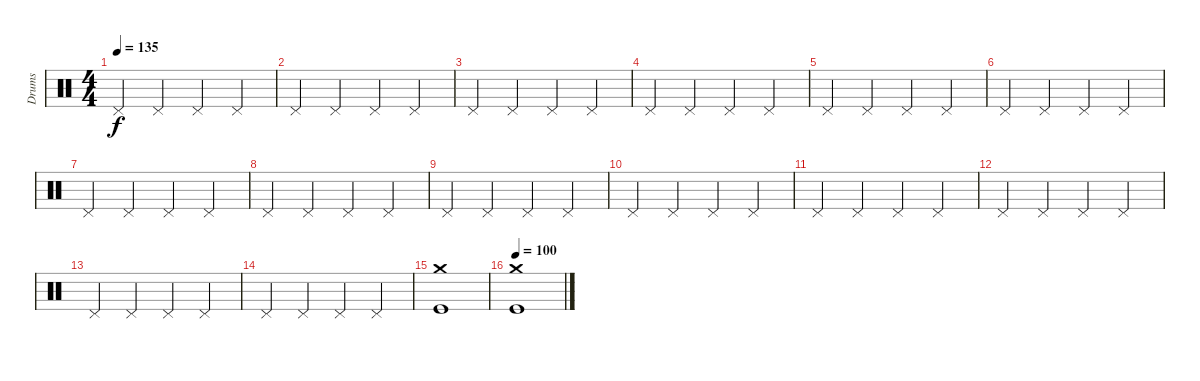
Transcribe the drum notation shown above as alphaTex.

\track ("Drums" "Drums") {instrument percussion}
\staff {score}
\articulation defaults
\ts (4 4)
\tempo 135
\clef neutral
\ks c "Pedal Hi-Hat (hit)".4{dy f} "Pedal Hi-Hat (hit)".4 "Pedal Hi-Hat (hit)".4 "Pedal Hi-Hat (hit)".4
|
"Pedal Hi-Hat (hit)".4 "Pedal Hi-Hat (hit)".4 "Pedal Hi-Hat (hit)".4 "Pedal Hi-Hat (hit)".4 |
"Pedal Hi-Hat (hit)".4 "Pedal Hi-Hat (hit)".4 "Pedal Hi-Hat (hit)".4 "Pedal Hi-Hat (hit)".4 |
"Pedal Hi-Hat (hit)".4 "Pedal Hi-Hat (hit)".4 "Pedal Hi-Hat (hit)".4 "Pedal Hi-Hat (hit)".4 |
"Pedal Hi-Hat (hit)".4 "Pedal Hi-Hat (hit)".4 "Pedal Hi-Hat (hit)".4 "Pedal Hi-Hat (hit)".4 |
"Pedal Hi-Hat (hit)".4 "Pedal Hi-Hat (hit)".4 "Pedal Hi-Hat (hit)".4 "Pedal Hi-Hat (hit)".4 |
"Pedal Hi-Hat (hit)".4 "Pedal Hi-Hat (hit)".4 "Pedal Hi-Hat (hit)".4 "Pedal Hi-Hat (hit)".4 |
"Pedal Hi-Hat (hit)".4 "Pedal Hi-Hat (hit)".4 "Pedal Hi-Hat (hit)".4 "Pedal Hi-Hat (hit)".4 |
"Pedal Hi-Hat (hit)".4 "Pedal Hi-Hat (hit)".4 "Pedal Hi-Hat (hit)".4 "Pedal Hi-Hat (hit)".4 |
"Pedal Hi-Hat (hit)".4 "Pedal Hi-Hat (hit)".4 "Pedal Hi-Hat (hit)".4 "Pedal Hi-Hat (hit)".4 |
"Pedal Hi-Hat (hit)".4 "Pedal Hi-Hat (hit)".4 "Pedal Hi-Hat (hit)".4 "Pedal Hi-Hat (hit)".4 |
"Pedal Hi-Hat (hit)".4 "Pedal Hi-Hat (hit)".4 "Pedal Hi-Hat (hit)".4 "Pedal Hi-Hat (hit)".4 |
"Pedal Hi-Hat (hit)".4 "Pedal Hi-Hat (hit)".4 "Pedal Hi-Hat (hit)".4 "Pedal Hi-Hat (hit)".4 |
"Pedal Hi-Hat (hit)".4 "Pedal Hi-Hat (hit)".4 "Pedal Hi-Hat (hit)".4 "Pedal Hi-Hat (hit)".4 |
("Kick (hit)" "Crash medium (hit)").1 |
\tempo 100
("Kick (hit)" "Crash medium (hit)").1
